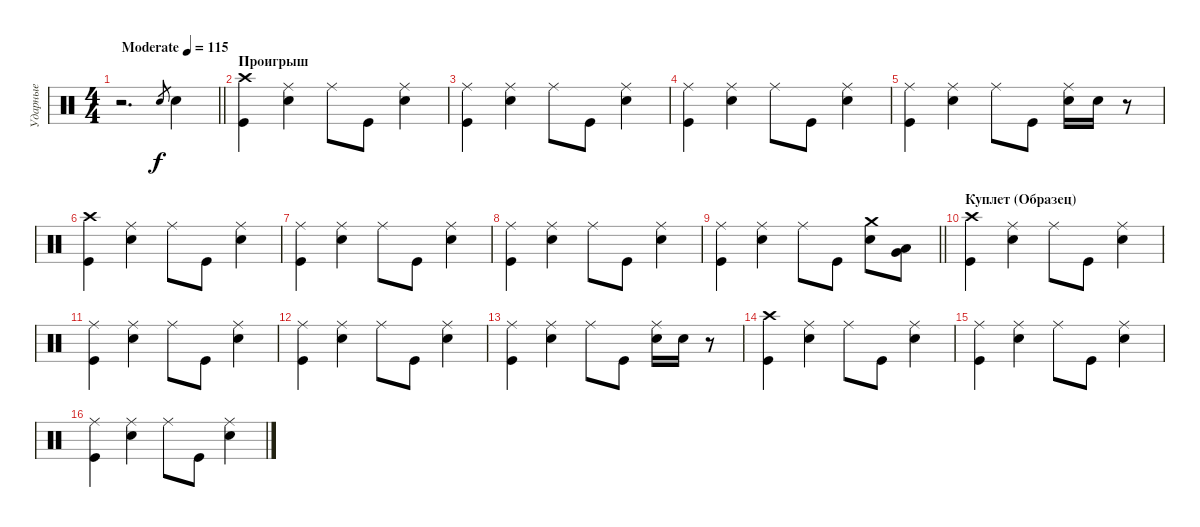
\track ("Ударные" "Ударные") {instrument percussion}
\staff {score}
\articulation defaults
\ts (4 4)
\tempo (115 "Moderate")
\clef neutral
\barLineRight lightlight
\ks c
r.2{d dy f} "Snare (hit) 2".8{gr} "Snare (hit) 2".4 |
\section ("" "Проигрыш")
("Crash high (hit)" "Kick (hit)").4 ("Ride (middle)" "Snare (hit) 2").4 "Ride (middle)".8 "Kick (hit)".8 ("Ride (middle)" "Snare (hit) 2").4 |
("Ride (middle)" "Kick (hit)").4 ("Ride (middle)" "Snare (hit) 2").4 "Ride (middle)".8 "Kick (hit)".8 ("Ride (middle)" "Snare (hit) 2").4 |
("Ride (middle)" "Kick (hit)").4 ("Ride (middle)" "Snare (hit) 2").4 "Ride (middle)".8 "Kick (hit)".8 ("Ride (middle)" "Snare (hit) 2").4 |
("Ride (middle)" "Kick (hit)").4 ("Ride (middle)" "Snare (hit) 2").4 "Ride (middle)".8 "Kick (hit)".8 ("Ride (middle)" "Snare (hit) 2").16 "Snare (hit) 2".16 r.8 |
("Crash high (hit)" "Kick (hit)").4 ("Ride (middle)" "Snare (hit) 2").4 "Ride (middle)".8 "Kick (hit)".8 ("Ride (middle)" "Snare (hit) 2").4 |
("Ride (middle)" "Kick (hit)").4 ("Ride (middle)" "Snare (hit) 2").4 "Ride (middle)".8 "Kick (hit)".8 ("Ride (middle)" "Snare (hit) 2").4 |
("Ride (middle)" "Kick (hit)").4 ("Ride (middle)" "Snare (hit) 2").4 "Ride (middle)".8 "Kick (hit)".8 ("Ride (middle)" "Snare (hit) 2").4 |
\barLineRight lightlight
("Ride (middle)" "Kick (hit)").4 ("Ride (middle)" "Snare (hit) 2").4 "Ride (middle)".8 "Kick (hit)".8 ("Crash medium (hit)" "Snare (hit) 2").8 ("Very Low Tom (hit)" "Low Floor Tom (hit)").8 |
\section ("" "Куплет (Образец)")
("Crash high (hit)" "Kick (hit)").4 ("Ride (middle)" "Snare (hit) 2").4 "Ride (middle)".8 "Kick (hit)".8 ("Ride (middle)" "Snare (hit) 2").4 |
("Ride (middle)" "Kick (hit)").4 ("Ride (middle)" "Snare (hit) 2").4 "Ride (middle)".8 "Kick (hit)".8 ("Ride (middle)" "Snare (hit) 2").4 |
("Ride (middle)" "Kick (hit)").4 ("Ride (middle)" "Snare (hit) 2").4 "Ride (middle)".8 "Kick (hit)".8 ("Ride (middle)" "Snare (hit) 2").4 |
("Ride (middle)" "Kick (hit)").4 ("Ride (middle)" "Snare (hit) 2").4 "Ride (middle)".8 "Kick (hit)".8 ("Ride (middle)" "Snare (hit) 2").16 "Snare (hit) 2".16 r.8 |
("Crash high (hit)" "Kick (hit)").4 ("Ride (middle)" "Snare (hit) 2").4 "Ride (middle)".8 "Kick (hit)".8 ("Ride (middle)" "Snare (hit) 2").4 |
("Ride (middle)" "Kick (hit)").4 ("Ride (middle)" "Snare (hit) 2").4 "Ride (middle)".8 "Kick (hit)".8 ("Ride (middle)" "Snare (hit) 2").4 |
("Ride (middle)" "Kick (hit)").4 ("Ride (middle)" "Snare (hit) 2").4 "Ride (middle)".8 "Kick (hit)".8 ("Ride (middle)" "Snare (hit) 2").4
